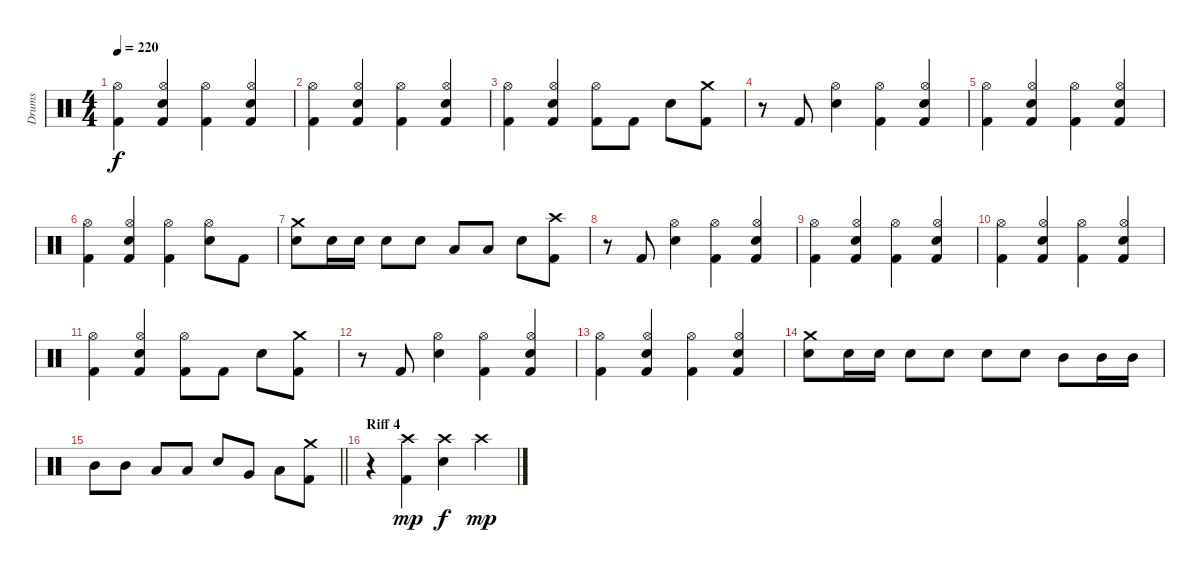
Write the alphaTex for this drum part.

\track ("Drums" "Drums") {instrument percussion}
\staff {score}
\articulation defaults
\ts (4 4)
\tempo 220
\clef neutral
\ks c
("Kick (hit) 2" "Hi-Hat (open)").4{dy f} ("Kick (hit) 2" "Electric Snare (hit)" "Hi-Hat (open)").4 ("Kick (hit) 2" "Hi-Hat (open)").4 ("Kick (hit) 2" "Electric Snare (hit)" "Hi-Hat (open)").4 |
("Kick (hit) 2" "Hi-Hat (open)").4 ("Kick (hit) 2" "Electric Snare (hit)" "Hi-Hat (open)").4 ("Kick (hit) 2" "Hi-Hat (open)").4 ("Kick (hit) 2" "Electric Snare (hit)" "Hi-Hat (open)").4 |
("Kick (hit) 2" "Hi-Hat (open)").4 ("Kick (hit) 2" "Electric Snare (hit)" "Hi-Hat (open)").4 ("Kick (hit) 2" "Hi-Hat (open)").8 "Kick (hit) 2".8 "Electric Snare (hit)".8 ("Kick (hit) 2" "Crash medium (hit)").8 |
r.8 "Kick (hit) 2".8 ("Electric Snare (hit)" "Hi-Hat (open)").4 ("Kick (hit) 2" "Hi-Hat (open)").4 ("Kick (hit) 2" "Electric Snare (hit)" "Hi-Hat (open)").4 |
("Kick (hit) 2" "Hi-Hat (open)").4 ("Kick (hit) 2" "Electric Snare (hit)" "Hi-Hat (open)").4 ("Kick (hit) 2" "Hi-Hat (open)").4 ("Kick (hit) 2" "Electric Snare (hit)" "Hi-Hat (open)").4 |
("Kick (hit) 2" "Hi-Hat (open)").4 ("Kick (hit) 2" "Electric Snare (hit)" "Hi-Hat (open)").4 ("Kick (hit) 2" "Hi-Hat (open)").4 ("Electric Snare (hit)" "Hi-Hat (open)").8 "Kick (hit) 2".8 |
("Electric Snare (hit)" "Crash medium (hit)").8 "Electric Snare (hit)".16 "Electric Snare (hit)".16 "Electric Snare (hit)".8 "Electric Snare (hit)".8 "Low Tom (hit)".8 "Low Tom (hit)".8 "Electric Snare (hit)".8 ("Kick (hit) 2" "Crash high (hit)").8 |
r.8 "Kick (hit) 2".8 ("Electric Snare (hit)" "Hi-Hat (open)").4 ("Kick (hit) 2" "Hi-Hat (open)").4 ("Kick (hit) 2" "Electric Snare (hit)" "Hi-Hat (open)").4 |
("Kick (hit) 2" "Hi-Hat (open)").4 ("Kick (hit) 2" "Electric Snare (hit)" "Hi-Hat (open)").4 ("Kick (hit) 2" "Hi-Hat (open)").4 ("Kick (hit) 2" "Electric Snare (hit)" "Hi-Hat (open)").4 |
("Kick (hit) 2" "Hi-Hat (open)").4 ("Kick (hit) 2" "Electric Snare (hit)" "Hi-Hat (open)").4 ("Kick (hit) 2" "Hi-Hat (open)").4 ("Kick (hit) 2" "Electric Snare (hit)" "Hi-Hat (open)").4 |
("Kick (hit) 2" "Hi-Hat (open)").4 ("Kick (hit) 2" "Electric Snare (hit)" "Hi-Hat (open)").4 ("Kick (hit) 2" "Hi-Hat (open)").8 "Kick (hit) 2".8 "Electric Snare (hit)".8 ("Kick (hit) 2" "Crash medium (hit)").8 |
r.8 "Kick (hit) 2".8 ("Electric Snare (hit)" "Hi-Hat (open)").4 ("Kick (hit) 2" "Hi-Hat (open)").4 ("Kick (hit) 2" "Electric Snare (hit)" "Hi-Hat (open)").4 |
("Kick (hit) 2" "Hi-Hat (open)").4 ("Kick (hit) 2" "Electric Snare (hit)" "Hi-Hat (open)").4 ("Kick (hit) 2" "Hi-Hat (open)").4 ("Kick (hit) 2" "Electric Snare (hit)" "Hi-Hat (open)").4 |
("Crash medium (hit)" "Electric Snare (hit)").8 "Electric Snare (hit)".16 "Electric Snare (hit)".16 "Electric Snare (hit)".8 "Electric Snare (hit)".8 "Electric Snare (hit)".8 "Electric Snare (hit)".8 "Mid Tom (hit)".8 "Mid Tom (hit)".16 "Mid Tom (hit)".16 |
\barLineRight lightlight "Mid Tom (hit)".8 "Mid Tom (hit)".8 "Low Tom (hit)".8 "Low Tom (hit)".8 "Electric Snare (hit)".8 "Very Low Tom (hit)".8 "Low Floor Tom (hit)".8
("Kick (hit) 2" "Crash medium (hit)").8 |
\section ("" "Riff 4")
r.4 ("Kick (hit) 2" "Crash high (hit)").4{dy mp} ("Electric Snare (hit)" "Crash high (hit)").4{dy f} "Crash high (hit)".4{dy mp}
